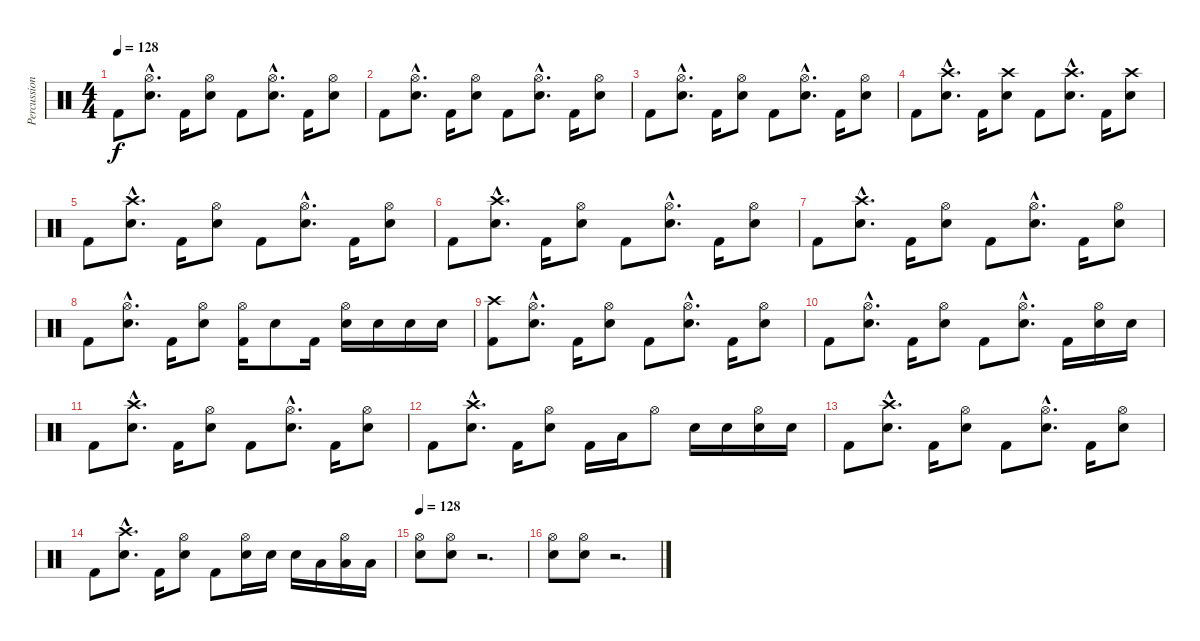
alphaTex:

\track ("Percussions" "Percussion") {instrument percussion}
\staff {score}
\articulation defaults
\ts (4 4)
\tempo 128
\clef neutral
\ks c "Kick (hit) 2".8{dy f}
("Hi-Hat (open)"{hac} "Electric Snare (hit)"{hac}).8{d} "Kick (hit) 2".16 ("Hi-Hat (open)" "Electric Snare (hit)").8 "Kick (hit) 2".8 ("Hi-Hat (open)"{hac} "Electric Snare (hit)"{hac}).8{d} "Kick (hit) 2".16 ("Hi-Hat (open)" "Electric Snare (hit)").8 |
"Kick (hit) 2".8 ("Hi-Hat (open)"{hac} "Electric Snare (hit)"{hac}).8{d} "Kick (hit) 2".16 ("Hi-Hat (open)" "Electric Snare (hit)").8 "Kick (hit) 2".8 ("Hi-Hat (open)"{hac} "Electric Snare (hit)"{hac}).8{d} "Kick (hit) 2".16 ("Hi-Hat (open)" "Electric Snare (hit)").8 |
"Kick (hit) 2".8 ("Hi-Hat (open)"{hac} "Electric Snare (hit)"{hac}).8{d} "Kick (hit) 2".16 ("Hi-Hat (open)" "Electric Snare (hit)").8 "Kick (hit) 2".8 ("Hi-Hat (open)"{hac} "Electric Snare (hit)"{hac}).8{d} "Kick (hit) 2".16 ("Hi-Hat (open)" "Electric Snare (hit)").8 |
"Kick (hit) 2".8 ("Crash high (hit)"{hac} "Electric Snare (hit)"{hac}).8{d} "Kick (hit) 2".16 ("Crash high (hit)" "Electric Snare (hit)").8 "Kick (hit) 2".8 ("Crash high (hit)"{hac} "Electric Snare (hit)"{hac}).8{d} "Kick (hit) 2".16 ("Crash high (hit)" "Electric Snare (hit)").8 |
"Kick (hit) 2".8 ("Crash high (hit)"{hac} "Electric Snare (hit)"{hac}).8{d} "Kick (hit) 2".16 ("Hi-Hat (open)" "Electric Snare (hit)").8 "Kick (hit) 2".8 ("Hi-Hat (open)"{hac} "Electric Snare (hit)"{hac}).8{d} "Kick (hit) 2".16 ("Hi-Hat (open)" "Electric Snare (hit)").8 |
"Kick (hit) 2".8 ("Crash high (hit)"{hac} "Electric Snare (hit)"{hac}).8{d} "Kick (hit) 2".16 ("Hi-Hat (open)" "Electric Snare (hit)").8 "Kick (hit) 2".8 ("Hi-Hat (open)"{hac} "Electric Snare (hit)"{hac}).8{d} "Kick (hit) 2".16 ("Hi-Hat (open)" "Electric Snare (hit)").8 |
"Kick (hit) 2".8 ("Crash high (hit)"{hac} "Electric Snare (hit)"{hac}).8{d} "Kick (hit) 2".16 ("Hi-Hat (open)" "Electric Snare (hit)").8 "Kick (hit) 2".8 ("Hi-Hat (open)"{hac} "Electric Snare (hit)"{hac}).8{d} "Kick (hit) 2".16 ("Hi-Hat (open)" "Electric Snare (hit)").8 |
"Kick (hit) 2".8 ("Hi-Hat (open)"{hac} "Electric Snare (hit)"{hac}).8{d} "Kick (hit) 2".16 ("Hi-Hat (open)" "Electric Snare (hit)").8 ("Hi-Hat (open)" "Kick (hit) 2").16 "Electric Snare (hit)".8 "Kick (hit) 2".16 ("Hi-Hat (open)" "Electric Snare (hit)").16 "Electric Snare (hit)".16 "Electric Snare (hit)".16 "Electric Snare (hit)".16 |
("Crash high (hit)" "Kick (hit) 2").8 ("Hi-Hat (open)"{hac} "Electric Snare (hit)"{hac}).8{d} "Kick (hit) 2".16 ("Hi-Hat (open)" "Electric Snare (hit)").8 "Kick (hit) 2".8 ("Hi-Hat (open)"{hac} "Electric Snare (hit)"{hac}).8{d} "Kick (hit) 2".16 ("Hi-Hat (open)" "Electric Snare (hit)").8 |
"Kick (hit) 2".8 ("Hi-Hat (open)"{hac} "Electric Snare (hit)"{hac}).8{d} "Kick (hit) 2".16 ("Hi-Hat (open)" "Electric Snare (hit)").8 "Kick (hit) 2".8 ("Hi-Hat (open)"{hac} "Electric Snare (hit)"{hac}).8{d} "Kick (hit) 2".16 ("Hi-Hat (open)" "Electric Snare (hit)").16 "Electric Snare (hit)".16 |
"Kick (hit) 2".8 ("Crash high (hit)"{hac} "Electric Snare (hit)"{hac}).8{d} "Kick (hit) 2".16 ("Hi-Hat (open)" "Electric Snare (hit)").8 "Kick (hit) 2".8 ("Hi-Hat (open)"{hac} "Electric Snare (hit)"{hac}).8{d} "Kick (hit) 2".16 ("Hi-Hat (open)" "Electric Snare (hit)").8 |
"Kick (hit) 2".8 ("Crash high (hit)"{hac} "Electric Snare (hit)"{hac}).8{d} "Kick (hit) 2".16 ("Hi-Hat (open)" "Electric Snare (hit)").8 "Kick (hit) 2".16 "Low Tom (hit)".16 "Hi-Hat (open)".8 "Electric Snare (hit)".16 "Electric Snare (hit)".16 ("Hi-Hat (open)" "Electric Snare (hit)").16 "Electric Snare (hit)".16 |
"Kick (hit) 2".8 ("Crash high (hit)"{hac} "Electric Snare (hit)"{hac}).8{d} "Kick (hit) 2".16 ("Hi-Hat (open)" "Electric Snare (hit)").8 "Kick (hit) 2".8 ("Hi-Hat (open)"{hac} "Electric Snare (hit)"{hac}).8{d} "Kick (hit) 2".16 ("Hi-Hat (open)" "Electric Snare (hit)").8 |
"Kick (hit) 2".8 ("Crash high (hit)"{hac} "Electric Snare (hit)"{hac}).8{d} "Kick (hit) 2".16 ("Hi-Hat (open)" "Electric Snare (hit)").8 "Kick (hit) 2".8 ("Hi-Hat (open)" "Electric Snare (hit)").16 "Electric Snare (hit)".16 "Electric Snare (hit)".16 "Low Tom (hit)".16 ("Hi-Hat (open)" "Low Tom (hit)").16 "Low Tom (hit)".16 |
\tempo 128
("Hi-Hat (open)" "Electric Snare (hit)").8 ("Hi-Hat (open)" "Electric Snare (hit)").8 r.2{d} |
("Hi-Hat (open)" "Electric Snare (hit)").8 ("Hi-Hat (open)" "Electric Snare (hit)").8 r.2{d}
